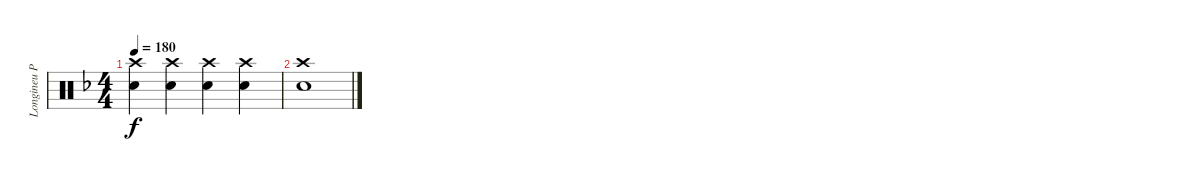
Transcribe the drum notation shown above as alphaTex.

\track ("Longineu Parsons III (Drums 1)" "Longineu P") {instrument percussion}
\staff {score}
\articulation defaults
\ts (4 4)
\tempo 180
\clef neutral
\ks f
("Crash high (hit)" "Snare (hit) 2").4{dy f} ("Crash high (hit)" "Snare (hit) 2").4 ("Crash high (hit)" "Snare (hit) 2").4 ("Crash high (hit)" "Snare (hit) 2").4 |
("Crash high (hit)" "Snare (hit) 2").1
